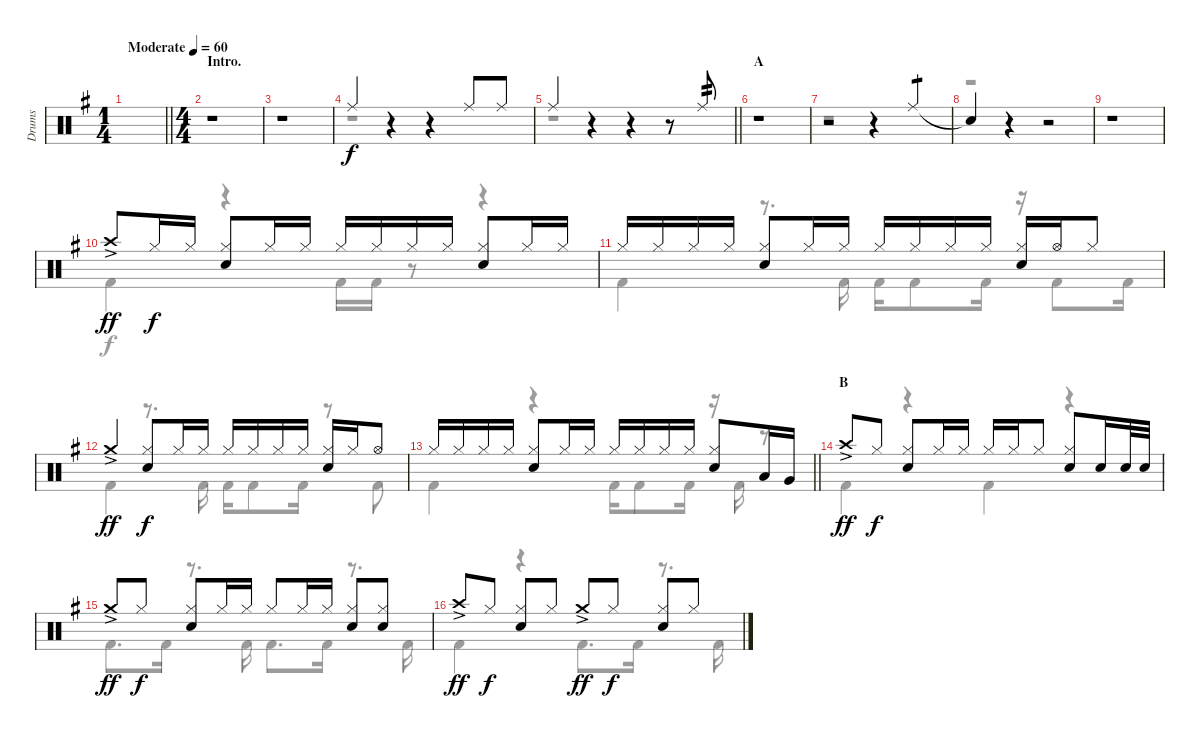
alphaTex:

\track ("Drums" "Drums") {instrument percussion}
\staff {score}
\articulation defaults
\voice
\ts (1 4)
\tempo (60 "Moderate")
\clef neutral
\barLineRight lightlight
\ks g
|
\ts (4 4)
\section ("" "Intro.")
r.1 |
r.1 |
"Ride (middle)".4 r.4 r.4 "Ride (middle)".8 "Ride (middle)".8 |
\barLineRight lightlight "Ride (middle)".4
r.4 r.4 r.8 "Ride (middle)".8{tp 2} |
\section ("" "A")
r.1 |
r.2 r.4 "Ride (middle)".4{tp 1} |
"Snare (hit)"{t}.4 r.4 r.2 |
r.1 |
"Crash high (hit)"{ac}.8{dy ff} "Hi-Hat (closed)".16{dy f} "Hi-Hat (closed)".16 ("Hi-Hat (closed)" "Snare (hit) 2").8 "Hi-Hat (closed)".16 "Hi-Hat (closed)".16 "Hi-Hat (closed)".16 "Hi-Hat (closed)".16 "Hi-Hat (closed)".16 "Hi-Hat (closed)".16 ("Hi-Hat (closed)" "Snare (hit) 2").8 "Hi-Hat (closed)".16 "Hi-Hat (closed)".16 |
"Hi-Hat (closed)".16 "Hi-Hat (closed)".16 "Hi-Hat (closed)".16 "Hi-Hat (closed)".16 ("Hi-Hat (closed)" "Snare (hit) 2").8 "Hi-Hat (closed)".16 "Hi-Hat (closed)".16 "Hi-Hat (closed)".16 "Hi-Hat (closed)".16 "Hi-Hat (closed)".16 "Hi-Hat (closed)".16 ("Hi-Hat (closed)" "Snare (hit) 2").16 "Hi-Hat (open)".16 "Hi-Hat (closed)".8 |
"Crash medium (hit)"{ac}.4{dy ff} ("Hi-Hat (closed)" "Snare (hit) 2").8{dy f} "Hi-Hat (closed)".16 "Hi-Hat (closed)".16 "Hi-Hat (closed)".16 "Hi-Hat (closed)".16 "Hi-Hat (closed)".16 "Hi-Hat (closed)".16 ("Hi-Hat (closed)" "Snare (hit) 2").16 "Hi-Hat (closed)".16 "Hi-Hat (open)".8 |
\barLineRight lightlight "Hi-Hat (closed)".16 "Hi-Hat (closed)".16 "Hi-Hat (closed)".16 "Hi-Hat (closed)".16
("Hi-Hat (closed)" "Snare (hit) 2").8 "Hi-Hat (closed)".16 "Hi-Hat (closed)".16 "Hi-Hat (closed)".16 "Hi-Hat (closed)".16 "Hi-Hat (closed)".16 "Hi-Hat (closed)".16 ("Hi-Hat (closed)" "Snare (hit) 2").8 "Low Tom (hit)".16 "Very Low Tom (hit)".16 |
\section ("" "B")
"Crash high (hit)"{ac}.8{dy ff} "Hi-Hat (closed)".8{dy f} ("Hi-Hat (closed)" "Snare (hit) 2").8 "Hi-Hat (closed)".16 "Hi-Hat (closed)".16 "Hi-Hat (closed)".16 "Hi-Hat (closed)".16 "Hi-Hat (closed)".8 ("Hi-Hat (closed)" "Snare (hit) 2").8 "Snare (hit) 2".16 "Snare (hit) 2".32 "Snare (hit) 2".32 |
"Crash medium (hit)"{ac}.8{dy ff} "Hi-Hat (closed)".8{dy f} ("Hi-Hat (closed)" "Snare (hit) 2").8 "Hi-Hat (closed)".16 "Hi-Hat (closed)".16 "Hi-Hat (closed)".8 "Hi-Hat (closed)".16 "Hi-Hat (closed)".16 ("Hi-Hat (closed)" "Snare (hit) 2").8 ("Hi-Hat (closed)" "Snare (hit) 2").8 |
"Crash high (hit)"{ac}.8{dy ff} "Hi-Hat (closed)".8{dy f} ("Hi-Hat (closed)" "Snare (hit) 2").8 "Hi-Hat (closed)".8 "Crash medium (hit)"{ac}.8{dy ff} "Hi-Hat (closed)".8{dy f} ("Hi-Hat (closed)" "Snare (hit) 2").8 "Hi-Hat (closed)".8
\voice
\clef neutral
\ottava regular
\simile none
\barLineRight lightlight
\ks g
|
|
|
r.1 |
\barLineRight lightlight
r.1 |
|
r.1 |
r.1 |
|
"Kick (hit) 2".4 r.4 "Kick (hit) 2".16 "Kick (hit) 2".16 r.8 r.4 |
"Kick (hit) 2".4 r.8{d} "Kick (hit) 2".16 "Kick (hit) 2".16 "Kick (hit) 2".8 "Kick (hit) 2".16 r.16 "Kick (hit) 2".8 "Kick (hit) 2".16 |
"Kick (hit) 2".4 r.8{d} "Kick (hit) 2".16 "Kick (hit) 2".16 "Kick (hit) 2".8 "Kick (hit) 2".16 r.8 "Kick (hit) 2".8 |
\barLineRight lightlight "Kick (hit) 2".4
r.4 "Kick (hit) 2".16 "Kick (hit) 2".8 "Kick (hit) 2".16 r.16 "Kick (hit) 2".16 r.8 |
"Kick (hit) 2".4 r.4 "Kick (hit) 2".4 r.4 |
"Kick (hit) 2".8{d} "Kick (hit) 2".16 r.8{d} "Kick (hit) 2".16 "Kick (hit) 2".8{d} "Kick (hit) 2".16 r.8{d} "Kick (hit) 2".16 |
"Kick (hit) 2".4 r.4 "Kick (hit) 2".8{d} "Kick (hit) 2".16 r.8{d} "Kick (hit) 2".16
